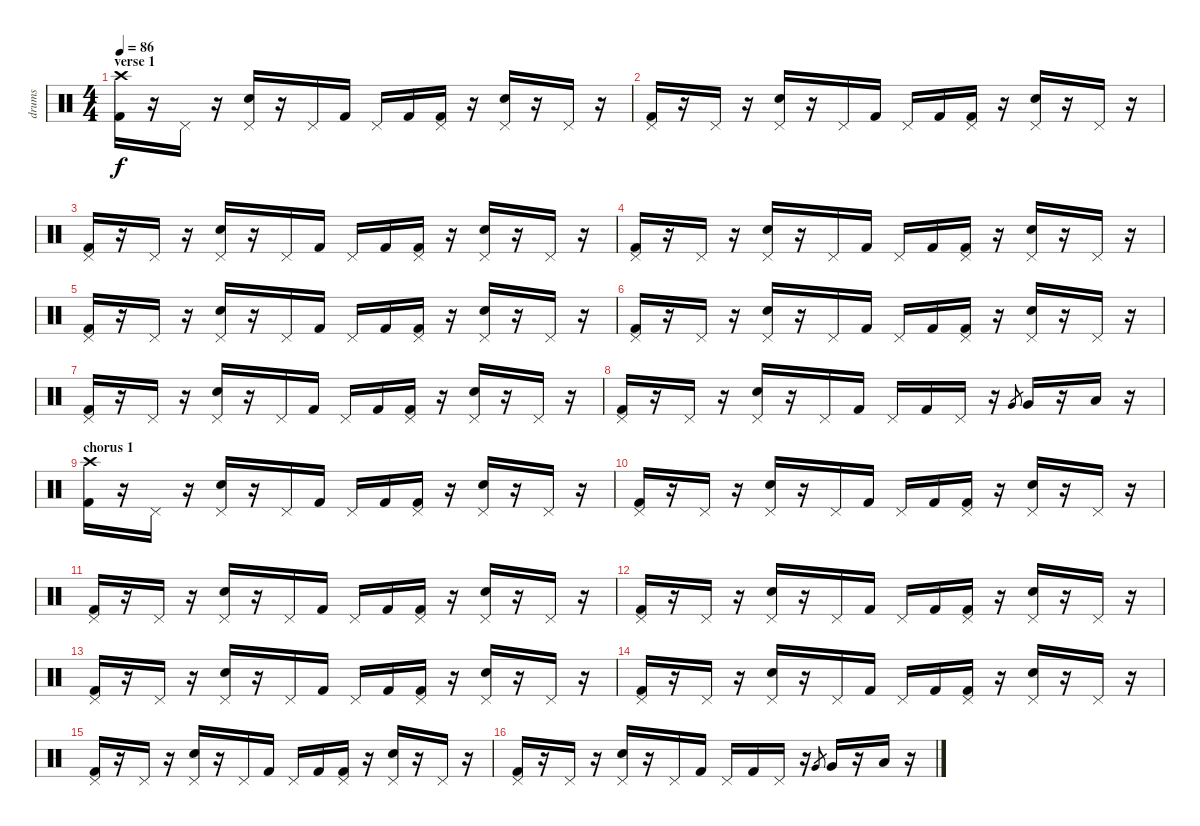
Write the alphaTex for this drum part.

\track ("drums" "drums") {instrument percussion}
\staff {score}
\articulation defaults
\ts (4 4)
\section ("" "verse 1")
\tempo 86
\clef neutral
\ks c
("Kick (hit) 2" "Crash high (hit)").16{dy f} r.16 "Pedal Hi-Hat (hit)".16 r.16 ("Electric Snare (hit)" "Pedal Hi-Hat (hit)").16 r.16 "Pedal Hi-Hat (hit)".16 "Kick (hit) 2".16 "Pedal Hi-Hat (hit)".16 "Kick (hit) 2".16 ("Kick (hit) 2" "Pedal Hi-Hat (hit)").16 r.16 ("Electric Snare (hit)" "Pedal Hi-Hat (hit)").16 r.16 "Pedal Hi-Hat (hit)".16 r.16 |
("Kick (hit) 2" "Pedal Hi-Hat (hit)").16 r.16 "Pedal Hi-Hat (hit)".16 r.16 ("Electric Snare (hit)" "Pedal Hi-Hat (hit)").16 r.16 "Pedal Hi-Hat (hit)".16 "Kick (hit) 2".16 "Pedal Hi-Hat (hit)".16 "Kick (hit) 2".16 ("Kick (hit) 2" "Pedal Hi-Hat (hit)").16 r.16 ("Electric Snare (hit)" "Pedal Hi-Hat (hit)").16 r.16 "Pedal Hi-Hat (hit)".16 r.16 |
("Kick (hit) 2" "Pedal Hi-Hat (hit)").16 r.16 "Pedal Hi-Hat (hit)".16 r.16 ("Electric Snare (hit)" "Pedal Hi-Hat (hit)").16 r.16 "Pedal Hi-Hat (hit)".16 "Kick (hit) 2".16 "Pedal Hi-Hat (hit)".16 "Kick (hit) 2".16 ("Kick (hit) 2" "Pedal Hi-Hat (hit)").16 r.16 ("Electric Snare (hit)" "Pedal Hi-Hat (hit)").16 r.16 "Pedal Hi-Hat (hit)".16 r.16 |
("Kick (hit) 2" "Pedal Hi-Hat (hit)").16 r.16 "Pedal Hi-Hat (hit)".16 r.16 ("Electric Snare (hit)" "Pedal Hi-Hat (hit)").16 r.16 "Pedal Hi-Hat (hit)".16 "Kick (hit) 2".16 "Pedal Hi-Hat (hit)".16 "Kick (hit) 2".16 ("Kick (hit) 2" "Pedal Hi-Hat (hit)").16 r.16 ("Electric Snare (hit)" "Pedal Hi-Hat (hit)").16 r.16 "Pedal Hi-Hat (hit)".16 r.16 |
("Kick (hit) 2" "Pedal Hi-Hat (hit)").16 r.16 "Pedal Hi-Hat (hit)".16 r.16 ("Electric Snare (hit)" "Pedal Hi-Hat (hit)").16 r.16 "Pedal Hi-Hat (hit)".16 "Kick (hit) 2".16 "Pedal Hi-Hat (hit)".16 "Kick (hit) 2".16 ("Kick (hit) 2" "Pedal Hi-Hat (hit)").16 r.16 ("Electric Snare (hit)" "Pedal Hi-Hat (hit)").16 r.16 "Pedal Hi-Hat (hit)".16 r.16 |
("Kick (hit) 2" "Pedal Hi-Hat (hit)").16 r.16 "Pedal Hi-Hat (hit)".16 r.16 ("Electric Snare (hit)" "Pedal Hi-Hat (hit)").16 r.16 "Pedal Hi-Hat (hit)".16 "Kick (hit) 2".16 "Pedal Hi-Hat (hit)".16 "Kick (hit) 2".16 ("Kick (hit) 2" "Pedal Hi-Hat (hit)").16 r.16 ("Electric Snare (hit)" "Pedal Hi-Hat (hit)").16 r.16 "Pedal Hi-Hat (hit)".16 r.16 |
("Kick (hit) 2" "Pedal Hi-Hat (hit)").16 r.16 "Pedal Hi-Hat (hit)".16 r.16 ("Electric Snare (hit)" "Pedal Hi-Hat (hit)").16 r.16 "Pedal Hi-Hat (hit)".16 "Kick (hit) 2".16 "Pedal Hi-Hat (hit)".16 "Kick (hit) 2".16 ("Kick (hit) 2" "Pedal Hi-Hat (hit)").16 r.16 ("Electric Snare (hit)" "Pedal Hi-Hat (hit)").16 r.16 "Pedal Hi-Hat (hit)".16 r.16 |
("Kick (hit) 2" "Pedal Hi-Hat (hit)").16 r.16 "Pedal Hi-Hat (hit)".16 r.16 ("Electric Snare (hit)" "Pedal Hi-Hat (hit)").16 r.16 "Pedal Hi-Hat (hit)".16 "Kick (hit) 2".16 "Pedal Hi-Hat (hit)".16 "Kick (hit) 2".16 "Pedal Hi-Hat (hit)".16 r.16 "Very Low Tom (hit)".8{gr} "Very Low Tom (hit)".16 r.16 "Low Tom (hit)".16 r.16 |
\section ("" "chorus 1")
("Kick (hit) 2" "Crash high (hit)").16 r.16 "Pedal Hi-Hat (hit)".16 r.16 ("Electric Snare (hit)" "Pedal Hi-Hat (hit)").16 r.16 "Pedal Hi-Hat (hit)".16 "Kick (hit) 2".16 "Pedal Hi-Hat (hit)".16 "Kick (hit) 2".16 ("Kick (hit) 2" "Pedal Hi-Hat (hit)").16 r.16 ("Electric Snare (hit)" "Pedal Hi-Hat (hit)").16 r.16 "Pedal Hi-Hat (hit)".16 r.16 |
("Kick (hit) 2" "Pedal Hi-Hat (hit)").16 r.16 "Pedal Hi-Hat (hit)".16 r.16 ("Electric Snare (hit)" "Pedal Hi-Hat (hit)").16 r.16 "Pedal Hi-Hat (hit)".16 "Kick (hit) 2".16 "Pedal Hi-Hat (hit)".16 "Kick (hit) 2".16 ("Kick (hit) 2" "Pedal Hi-Hat (hit)").16 r.16 ("Electric Snare (hit)" "Pedal Hi-Hat (hit)").16 r.16 "Pedal Hi-Hat (hit)".16 r.16 |
("Kick (hit) 2" "Pedal Hi-Hat (hit)").16 r.16 "Pedal Hi-Hat (hit)".16 r.16 ("Electric Snare (hit)" "Pedal Hi-Hat (hit)").16 r.16 "Pedal Hi-Hat (hit)".16 "Kick (hit) 2".16 "Pedal Hi-Hat (hit)".16 "Kick (hit) 2".16 ("Kick (hit) 2" "Pedal Hi-Hat (hit)").16 r.16 ("Electric Snare (hit)" "Pedal Hi-Hat (hit)").16 r.16 "Pedal Hi-Hat (hit)".16 r.16 |
("Kick (hit) 2" "Pedal Hi-Hat (hit)").16 r.16 "Pedal Hi-Hat (hit)".16 r.16 ("Electric Snare (hit)" "Pedal Hi-Hat (hit)").16 r.16 "Pedal Hi-Hat (hit)".16 "Kick (hit) 2".16 "Pedal Hi-Hat (hit)".16 "Kick (hit) 2".16 ("Kick (hit) 2" "Pedal Hi-Hat (hit)").16 r.16 ("Electric Snare (hit)" "Pedal Hi-Hat (hit)").16 r.16 "Pedal Hi-Hat (hit)".16 r.16 |
("Kick (hit) 2" "Pedal Hi-Hat (hit)").16 r.16 "Pedal Hi-Hat (hit)".16 r.16 ("Electric Snare (hit)" "Pedal Hi-Hat (hit)").16 r.16 "Pedal Hi-Hat (hit)".16 "Kick (hit) 2".16 "Pedal Hi-Hat (hit)".16 "Kick (hit) 2".16 ("Kick (hit) 2" "Pedal Hi-Hat (hit)").16 r.16 ("Electric Snare (hit)" "Pedal Hi-Hat (hit)").16 r.16 "Pedal Hi-Hat (hit)".16 r.16 |
("Kick (hit) 2" "Pedal Hi-Hat (hit)").16 r.16 "Pedal Hi-Hat (hit)".16 r.16 ("Electric Snare (hit)" "Pedal Hi-Hat (hit)").16 r.16 "Pedal Hi-Hat (hit)".16 "Kick (hit) 2".16 "Pedal Hi-Hat (hit)".16 "Kick (hit) 2".16 ("Kick (hit) 2" "Pedal Hi-Hat (hit)").16 r.16 ("Electric Snare (hit)" "Pedal Hi-Hat (hit)").16 r.16 "Pedal Hi-Hat (hit)".16 r.16 |
("Kick (hit) 2" "Pedal Hi-Hat (hit)").16 r.16 "Pedal Hi-Hat (hit)".16 r.16 ("Electric Snare (hit)" "Pedal Hi-Hat (hit)").16 r.16 "Pedal Hi-Hat (hit)".16 "Kick (hit) 2".16 "Pedal Hi-Hat (hit)".16 "Kick (hit) 2".16 ("Kick (hit) 2" "Pedal Hi-Hat (hit)").16 r.16 ("Electric Snare (hit)" "Pedal Hi-Hat (hit)").16 r.16 "Pedal Hi-Hat (hit)".16 r.16 |
("Kick (hit) 2" "Pedal Hi-Hat (hit)").16 r.16 "Pedal Hi-Hat (hit)".16 r.16 ("Electric Snare (hit)" "Pedal Hi-Hat (hit)").16 r.16 "Pedal Hi-Hat (hit)".16 "Kick (hit) 2".16 "Pedal Hi-Hat (hit)".16 "Kick (hit) 2".16 "Pedal Hi-Hat (hit)".16 r.16 "Very Low Tom (hit)".8{gr} "Very Low Tom (hit)".16 r.16 "Low Tom (hit)".16 r.16
